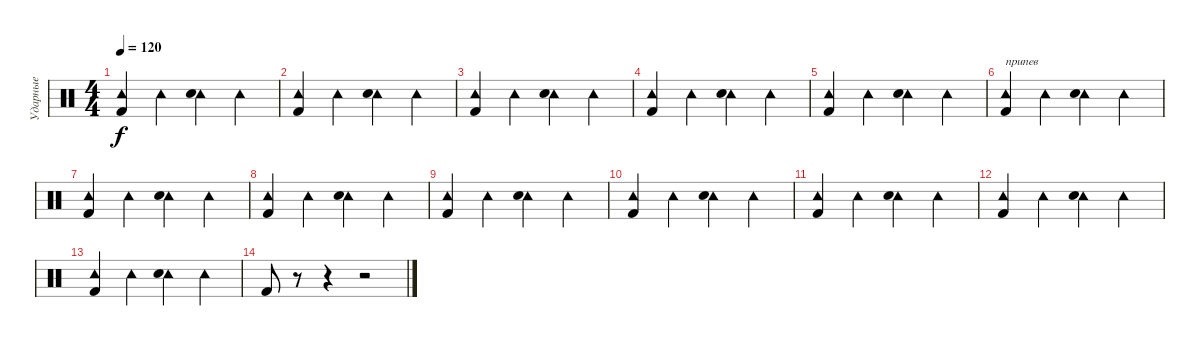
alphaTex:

\track ("Ударные" "Ударные") {instrument percussion}
\staff {score}
\articulation defaults
\ts (4 4)
\tempo 120
\clef neutral
\ks c
("Tambourine (hit)" "Kick (hit) 2").4{dy f} "Tambourine (hit)".4 ("Tambourine (hit)" "Electric Snare (hit)").4 "Tambourine (hit)".4 |
("Tambourine (hit)" "Kick (hit) 2").4 "Tambourine (hit)".4 ("Tambourine (hit)" "Electric Snare (hit)").4 "Tambourine (hit)".4 |
("Tambourine (hit)" "Kick (hit) 2").4 "Tambourine (hit)".4 ("Tambourine (hit)" "Electric Snare (hit)").4 "Tambourine (hit)".4 |
("Tambourine (hit)" "Kick (hit) 2").4 "Tambourine (hit)".4 ("Tambourine (hit)" "Electric Snare (hit)").4 "Tambourine (hit)".4 |
("Tambourine (hit)" "Kick (hit) 2").4 "Tambourine (hit)".4 ("Tambourine (hit)" "Electric Snare (hit)").4 "Tambourine (hit)".4 |
("Tambourine (hit)" "Kick (hit) 2").4{txt "припев"} "Tambourine (hit)".4 ("Tambourine (hit)" "Electric Snare (hit)").4 "Tambourine (hit)".4 |
("Tambourine (hit)" "Kick (hit) 2").4 "Tambourine (hit)".4 ("Tambourine (hit)" "Electric Snare (hit)").4 "Tambourine (hit)".4 |
("Tambourine (hit)" "Kick (hit) 2").4 "Tambourine (hit)".4 ("Tambourine (hit)" "Electric Snare (hit)").4 "Tambourine (hit)".4 |
("Tambourine (hit)" "Kick (hit) 2").4 "Tambourine (hit)".4 ("Tambourine (hit)" "Electric Snare (hit)").4 "Tambourine (hit)".4 |
("Tambourine (hit)" "Kick (hit) 2").4 "Tambourine (hit)".4 ("Tambourine (hit)" "Electric Snare (hit)").4 "Tambourine (hit)".4 |
("Tambourine (hit)" "Kick (hit) 2").4 "Tambourine (hit)".4 ("Tambourine (hit)" "Electric Snare (hit)").4 "Tambourine (hit)".4 |
("Tambourine (hit)" "Kick (hit) 2").4 "Tambourine (hit)".4 ("Tambourine (hit)" "Electric Snare (hit)").4 "Tambourine (hit)".4 |
("Tambourine (hit)" "Kick (hit) 2").4 "Tambourine (hit)".4 ("Tambourine (hit)" "Electric Snare (hit)").4 "Tambourine (hit)".4 |
"Kick (hit) 2".8 r.8 r.4 r.2
